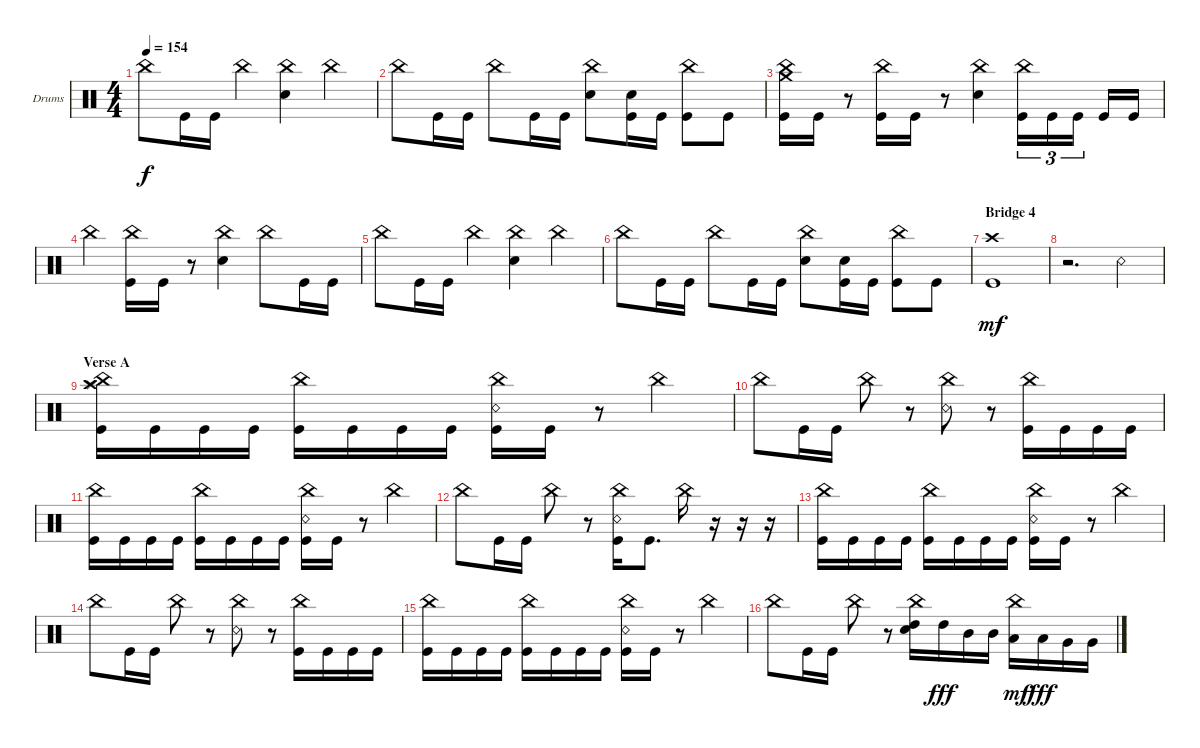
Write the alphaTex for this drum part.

\defaultSystemsLayout 4
\bracketExtendMode groupsimilarinstruments
\firstSystemTrackNameOrientation horizontal
\otherSystemsTrackNameOrientation horizontal
\track ("Drums" "Drums") {instrument percussion}
\staff {score}
\articulation defaults
\ts (4 4)
\tempo 154
\clef neutral
\ks c "China (hit)".8{dy f} "Kick (hit)".16 "Kick (hit)".16 "China (hit)".4
("China (hit)" "Snare (hit) 2").4 "China (hit)".4 |
"China (hit)".8 "Kick (hit)".16 "Kick (hit)".16 "China (hit)".8 "Kick (hit)".16 "Kick (hit)".16 ("China (hit)" "Snare (hit) 2").8 ("Kick (hit)" "Snare (hit) 2").16 "Kick (hit)".16 ("Kick (hit)" "China (hit)").8 "Kick (hit)".8 |
("Kick (hit)" "China (hit)" "Crash medium (hit)").16 "Kick (hit)".16 r.8 ("Kick (hit)" "China (hit)").16 "Kick (hit)".16 r.8 ("Snare (hit) 2" "China (hit)").4 ("Kick (hit)" "China (hit)").16{tu (3 2)} "Kick (hit)".16{tu (3 2)} "Kick (hit)".16{tu (3 2)} "Kick (hit)".16 "Kick (hit)".16 |
"China (hit)".4 ("Kick (hit)" "China (hit)").16 "Kick (hit)".16 r.8 ("Snare (hit) 2" "China (hit)").4 "China (hit)".8 "Kick (hit)".16 "Kick (hit)".16 |
"China (hit)".8 "Kick (hit)".16 "Kick (hit)".16 "China (hit)".4 ("China (hit)" "Snare (hit) 2").4 "China (hit)".4 |
"China (hit)".8 "Kick (hit)".16 "Kick (hit)".16 "China (hit)".8 "Kick (hit)".16 "Kick (hit)".16 ("China (hit)" "Snare (hit) 2").8 ("Kick (hit)" "Snare (hit) 2").16 "Kick (hit)".16 ("Kick (hit)" "China (hit)").8 "Kick (hit)".8 |
\section ("" "Bridge 4")
("Kick (hit)" "Crash high (hit)").1{dy mf} |
r.2{d} "Snare (rim shot)".4 |
\section ("" "Verse A")
("Kick (hit)" "Splash (hit)" "China (hit)" "Crash high (hit)").16 "Kick (hit)".16 "Kick (hit)".16 "Kick (hit)".16 ("Kick (hit)" "China (hit)").16 "Kick (hit)".16 "Kick (hit)".16 "Kick (hit)".16 ("Kick (hit)" "Snare (rim shot)" "China (hit)").16 "Kick (hit)".16 r.8 "China (hit)".4 |
"China (hit)".8 "Kick (hit)".16 "Kick (hit)".16 "China (hit)".8 r.8 ("Snare (rim shot)" "China (hit)").8 r.8 ("Kick (hit)" "China (hit)").16 "Kick (hit)".16 "Kick (hit)".16 "Kick (hit)".16 |
("Kick (hit)" "China (hit)").16 "Kick (hit)".16 "Kick (hit)".16 "Kick (hit)".16 ("Kick (hit)" "China (hit)").16 "Kick (hit)".16 "Kick (hit)".16 "Kick (hit)".16 ("Kick (hit)" "Snare (rim shot)" "China (hit)").16 "Kick (hit)".16 r.8 "China (hit)".4 |
"China (hit)".8 "Kick (hit)".16 "Kick (hit)".16 "China (hit)".8 r.8 ("Snare (rim shot)" "China (hit)" "Kick (hit)").16 "Kick (hit)".8{d} "China (hit)".16 r.16 r.16 r.16 |
("Kick (hit)" "China (hit)").16 "Kick (hit)".16 "Kick (hit)".16 "Kick (hit)".16 ("Kick (hit)" "China (hit)").16 "Kick (hit)".16 "Kick (hit)".16 "Kick (hit)".16 ("Kick (hit)" "Snare (rim shot)" "China (hit)").16 "Kick (hit)".16 r.8 "China (hit)".4 |
"China (hit)".8 "Kick (hit)".16 "Kick (hit)".16 "China (hit)".8 r.8 ("Snare (rim shot)" "China (hit)").8 r.8 ("Kick (hit)" "China (hit)").16 "Kick (hit)".16 "Kick (hit)".16 "Kick (hit)".16 |
("Kick (hit)" "China (hit)").16 "Kick (hit)".16 "Kick (hit)".16 "Kick (hit)".16 ("Kick (hit)" "China (hit)").16 "Kick (hit)".16 "Kick (hit)".16 "Kick (hit)".16 ("Kick (hit)" "Snare (rim shot)" "China (hit)").16 "Kick (hit)".16 r.8 "China (hit)".4 |
"China (hit)".8 "Kick (hit)".16 "Kick (hit)".16 "China (hit)".8 r.8 ("High Tom (hit)" "Snare (hit) 2" "China (hit)").16 "High Tom (hit)".16{dy fff} "Mid Tom (hit)".16 "Mid Tom (hit)".16 ("Low Tom (hit)" "China (hit)").16{dy mf} "Low Tom (hit)".16{dy fff} "Very Low Tom (hit)".16 "Very Low Tom (hit)".16
